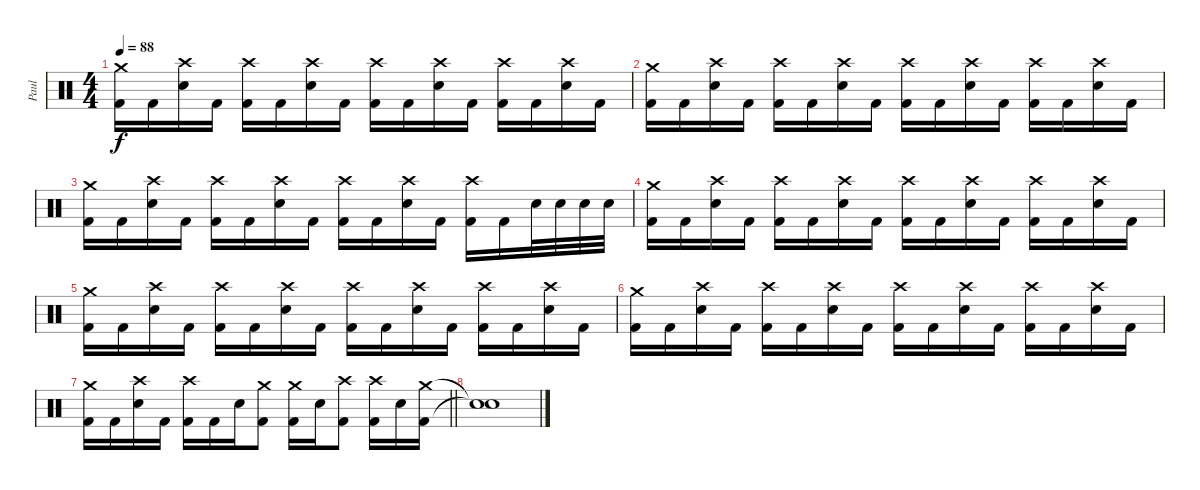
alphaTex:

\track ("Paul" "Paul") {instrument percussion}
\staff
\articulation defaults
\ts (4 4)
\tempo 88
\clef neutral
\ks c
("Crash medium (hit)" "Kick (hit) 2").16{dy f} "Kick (hit) 2".16 ("Crash high (hit)" "Electric Snare (hit)").16 "Kick (hit) 2".16 ("Crash high (hit)" "Kick (hit) 2").16 "Kick (hit) 2".16 ("Crash high (hit)" "Electric Snare (hit)").16 "Kick (hit) 2".16 ("Crash high (hit)" "Kick (hit) 2").16 "Kick (hit) 2".16 ("Crash high (hit)" "Electric Snare (hit)").16 "Kick (hit) 2".16 ("Crash high (hit)" "Kick (hit) 2").16 "Kick (hit) 2".16 ("Crash high (hit)" "Electric Snare (hit)").16 "Kick (hit) 2".16 |
("Crash medium (hit)" "Kick (hit) 2").16 "Kick (hit) 2".16 ("Crash high (hit)" "Electric Snare (hit)").16 "Kick (hit) 2".16 ("Crash high (hit)" "Kick (hit) 2").16 "Kick (hit) 2".16 ("Crash high (hit)" "Electric Snare (hit)").16 "Kick (hit) 2".16 ("Crash high (hit)" "Kick (hit) 2").16 "Kick (hit) 2".16 ("Crash high (hit)" "Electric Snare (hit)").16 "Kick (hit) 2".16 ("Crash high (hit)" "Kick (hit) 2").16 "Kick (hit) 2".16 ("Crash high (hit)" "Electric Snare (hit)").16 "Kick (hit) 2".16 |
("Crash medium (hit)" "Kick (hit) 2").16 "Kick (hit) 2".16 ("Crash high (hit)" "Electric Snare (hit)").16 "Kick (hit) 2".16 ("Crash high (hit)" "Kick (hit) 2").16 "Kick (hit) 2".16 ("Crash high (hit)" "Electric Snare (hit)").16 "Kick (hit) 2".16 ("Crash high (hit)" "Kick (hit) 2").16 "Kick (hit) 2".16 ("Crash high (hit)" "Electric Snare (hit)").16 "Kick (hit) 2".16 ("Crash high (hit)" "Kick (hit) 2").16 "Kick (hit) 2".16 "Electric Snare (hit)".32 "Electric Snare (hit)".32 "Electric Snare (hit)".32 "Electric Snare (hit)".32 |
("Crash medium (hit)" "Kick (hit) 2").16 "Kick (hit) 2".16 ("Crash high (hit)" "Electric Snare (hit)").16 "Kick (hit) 2".16 ("Crash high (hit)" "Kick (hit) 2").16 "Kick (hit) 2".16 ("Crash high (hit)" "Electric Snare (hit)").16 "Kick (hit) 2".16 ("Crash high (hit)" "Kick (hit) 2").16 "Kick (hit) 2".16 ("Crash high (hit)" "Electric Snare (hit)").16 "Kick (hit) 2".16 ("Crash high (hit)" "Kick (hit) 2").16 "Kick (hit) 2".16 ("Crash high (hit)" "Electric Snare (hit)").16 "Kick (hit) 2".16 |
("Crash medium (hit)" "Kick (hit) 2").16 "Kick (hit) 2".16 ("Crash high (hit)" "Electric Snare (hit)").16 "Kick (hit) 2".16 ("Crash high (hit)" "Kick (hit) 2").16 "Kick (hit) 2".16 ("Crash high (hit)" "Electric Snare (hit)").16 "Kick (hit) 2".16 ("Crash high (hit)" "Kick (hit) 2").16 "Kick (hit) 2".16 ("Crash high (hit)" "Electric Snare (hit)").16 "Kick (hit) 2".16 ("Crash high (hit)" "Kick (hit) 2").16 "Kick (hit) 2".16 ("Crash high (hit)" "Electric Snare (hit)").16 "Kick (hit) 2".16 |
("Crash medium (hit)" "Kick (hit) 2").16 "Kick (hit) 2".16 ("Crash high (hit)" "Electric Snare (hit)").16 "Kick (hit) 2".16 ("Crash high (hit)" "Kick (hit) 2").16 "Kick (hit) 2".16 ("Crash high (hit)" "Electric Snare (hit)").16 "Kick (hit) 2".16 ("Crash high (hit)" "Kick (hit) 2").16 "Kick (hit) 2".16 ("Crash high (hit)" "Electric Snare (hit)").16 "Kick (hit) 2".16 ("Crash high (hit)" "Kick (hit) 2").16 "Kick (hit) 2".16 ("Crash high (hit)" "Electric Snare (hit)").16 "Kick (hit) 2".16 |
\barLineRight lightlight
("Crash medium (hit)" "Kick (hit) 2").16 "Kick (hit) 2".16 ("Crash high (hit)" "Electric Snare (hit)").16 "Kick (hit) 2".16 ("Crash high (hit)" "Kick (hit) 2").16 "Kick (hit) 2".16 "Electric Snare (hit)".16 ("Crash medium (hit)" "Kick (hit) 2").8 ("Crash medium (hit)" "Kick (hit) 2").16 "Electric Snare (hit)".16 ("Crash high (hit)" "Kick (hit) 2").8 ("Crash high (hit)" "Kick (hit) 2").16 "Electric Snare (hit)".16 ("Crash medium (hit)" "Kick (hit) 2").16 |
("Snare (hit)"{t} "Snare (hit)"{t}).1
